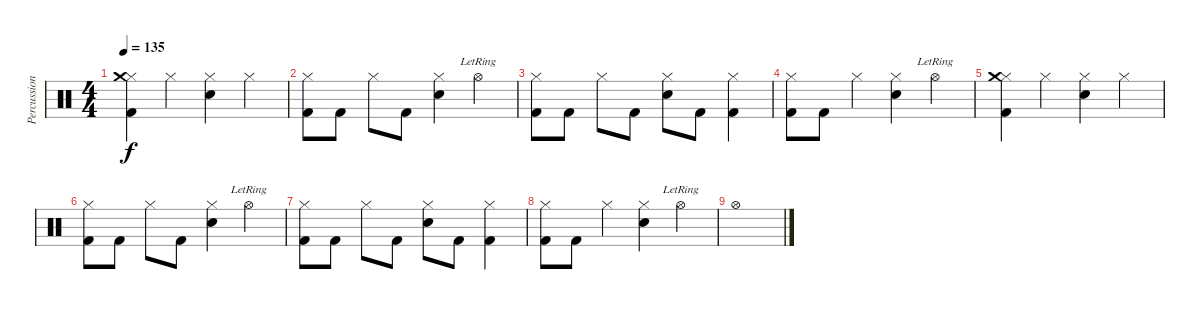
\track ("Percussion" "Percussion") {instrument percussion}
\staff {score}
\articulation defaults
\ts (4 4)
\tempo 135
\clef neutral
\ks c
("Kick (hit) 2" "Hi-Hat (closed)" "Crash medium (hit)").4{dy f} "Hi-Hat (closed)".4 ("Electric Snare (hit)" "Hi-Hat (closed)").4 "Hi-Hat (closed)".4 |
("Kick (hit) 2" "Hi-Hat (closed)").8 "Kick (hit) 2".8 "Hi-Hat (closed)".8 "Kick (hit) 2".8 ("Electric Snare (hit)" "Hi-Hat (closed)").4 "Hi-Hat (open)"{lr}.4 |
("Kick (hit) 2" "Hi-Hat (closed)").8 "Kick (hit) 2".8 "Hi-Hat (closed)".8 "Kick (hit) 2".8 ("Electric Snare (hit)" "Hi-Hat (closed)").8 "Kick (hit) 2".8 ("Kick (hit) 2" "Hi-Hat (closed)").4 |
("Kick (hit) 2" "Hi-Hat (closed)").8 "Kick (hit) 2".8 "Hi-Hat (closed)".4 ("Electric Snare (hit)" "Hi-Hat (closed)").4 "Hi-Hat (open)"{lr}.4 |
("Kick (hit) 2" "Hi-Hat (closed)" "Crash medium (hit)").4 "Hi-Hat (closed)".4 ("Electric Snare (hit)" "Hi-Hat (closed)").4 "Hi-Hat (closed)".4 |
("Kick (hit) 2" "Hi-Hat (closed)").8 "Kick (hit) 2".8 "Hi-Hat (closed)".8 "Kick (hit) 2".8 ("Electric Snare (hit)" "Hi-Hat (closed)").4 "Hi-Hat (open)"{lr}.4 |
("Kick (hit) 2" "Hi-Hat (closed)").8 "Kick (hit) 2".8 "Hi-Hat (closed)".8 "Kick (hit) 2".8 ("Electric Snare (hit)" "Hi-Hat (closed)").8 "Kick (hit) 2".8 ("Kick (hit) 2" "Hi-Hat (closed)").4 |
("Kick (hit) 2" "Hi-Hat (closed)").8 "Kick (hit) 2".8 "Hi-Hat (closed)".4 ("Electric Snare (hit)" "Hi-Hat (closed)").4 "Hi-Hat (open)"{lr}.4 |
"Hi-Hat (open)".1
